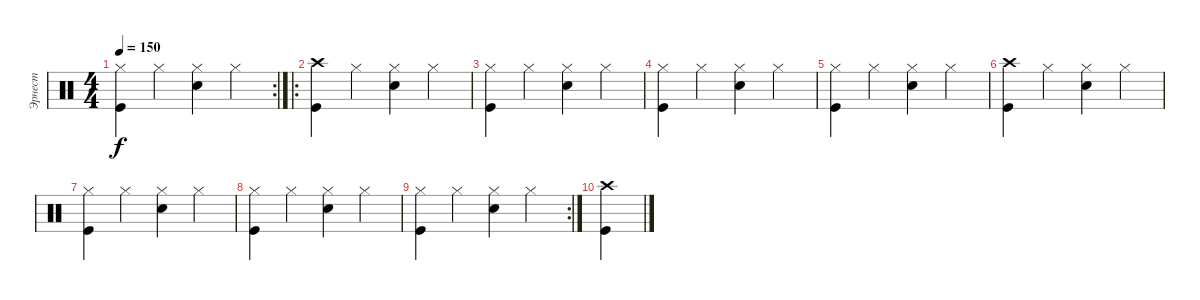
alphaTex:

\track ("Эрнест" "Эрнест") {instrument percussion}
\staff {score}
\articulation defaults
\rc 2
\ts (4 4)
\tempo 150
\clef neutral
\ks c
("Hi-Hat (closed)" "Kick (hit)").4{dy f} "Hi-Hat (closed)".4 ("Hi-Hat (closed)" "Snare (hit) 2").4 "Hi-Hat (closed)".4 |
\ro
("Crash high (hit)" "Kick (hit)").4 "Hi-Hat (closed)".4 ("Hi-Hat (closed)" "Snare (hit) 2").4 "Hi-Hat (closed)".4 |
("Hi-Hat (closed)" "Kick (hit)").4 "Hi-Hat (closed)".4 ("Hi-Hat (closed)" "Snare (hit) 2").4 "Hi-Hat (closed)".4 |
("Hi-Hat (closed)" "Kick (hit)").4 "Hi-Hat (closed)".4 ("Hi-Hat (closed)" "Snare (hit) 2").4 "Hi-Hat (closed)".4 |
("Hi-Hat (closed)" "Kick (hit)").4 "Hi-Hat (closed)".4 ("Hi-Hat (closed)" "Snare (hit) 2").4 "Hi-Hat (closed)".4 |
("Crash high (hit)" "Kick (hit)").4 "Hi-Hat (closed)".4 ("Hi-Hat (closed)" "Snare (hit) 2").4 "Hi-Hat (closed)".4 |
("Hi-Hat (closed)" "Kick (hit)").4 "Hi-Hat (closed)".4 ("Hi-Hat (closed)" "Snare (hit) 2").4 "Hi-Hat (closed)".4 |
("Hi-Hat (closed)" "Kick (hit)").4 "Hi-Hat (closed)".4 ("Hi-Hat (closed)" "Snare (hit) 2").4 "Hi-Hat (closed)".4 |
\rc 2
("Hi-Hat (closed)" "Kick (hit)").4 "Hi-Hat (closed)".4 ("Hi-Hat (closed)" "Snare (hit) 2").4 "Hi-Hat (closed)".4 |
("Crash high (hit)" "Kick (hit)").4
